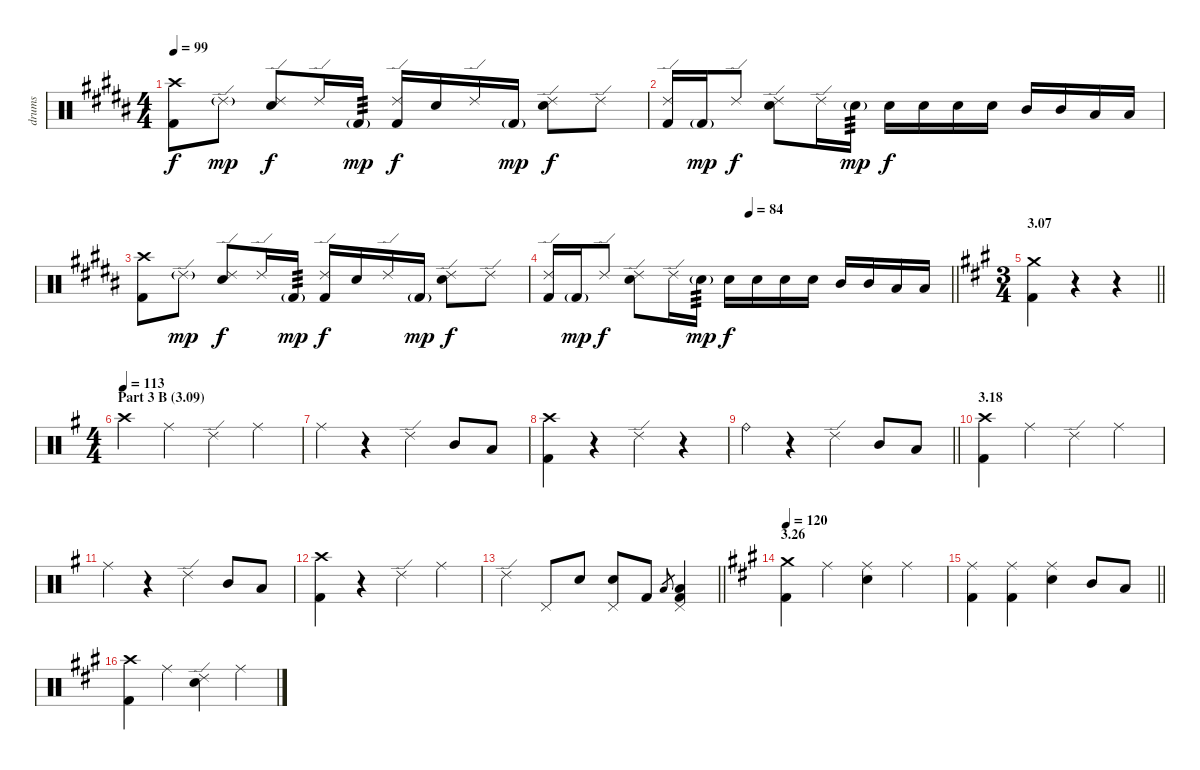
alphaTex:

\track ("drums" "drums") {instrument percussion}
\staff {score}
\articulation defaults
\ts (4 4)
\tempo 99
\clef neutral
\ks b
("Crash high (hit)" "Kick (hit) 2").8{dy f} "Ride (edge) 2"{g}.8{dy mp} ("Ride (edge) 2" "Electric Snare (hit)").8{dy f} "Ride (edge) 2".16 "Kick (hit) 2"{g}.16{tp 3 dy mp} ("Ride (edge) 2" "Kick (hit) 2").16{dy f} "Electric Snare (hit)".16 "Ride (edge) 2".16 "Kick (hit) 2"{g}.16{dy mp} ("Ride (edge) 2" "Electric Snare (hit)").8{dy f} "Ride (edge) 2".8 |
("Ride (edge) 2" "Kick (hit) 2").16 "Kick (hit) 2"{g}.16{dy mp} "Ride (edge) 2".8{dy f} ("Ride (edge) 2" "Electric Snare (hit)").8 "Ride (edge) 2".16 "Electric Snare (hit)"{g}.16{tp 3 dy mp} "Electric Snare (hit)".16{dy f} "Electric Snare (hit)".16 "Electric Snare (hit)".16 "Electric Snare (hit)".16 "Mid Tom (hit)".16 "Mid Tom (hit)".16 "Low Tom (hit)".16 "Low Tom (hit)".16 |
("Crash high (hit)" "Kick (hit) 2").8 "Ride (edge) 2"{g}.8{dy mp} ("Ride (edge) 2" "Electric Snare (hit)").8{dy f} "Ride (edge) 2".16 "Kick (hit) 2"{g}.16{tp 3 dy mp} ("Ride (edge) 2" "Kick (hit) 2").16{dy f} "Electric Snare (hit)".16 "Ride (edge) 2".16 "Kick (hit) 2"{g}.16{dy mp} ("Ride (edge) 2" "Electric Snare (hit)").8{dy f} "Ride (edge) 2".8 |
\tempo (84 0.5)
\barLineRight lightlight
("Ride (edge) 2" "Kick (hit) 2").16 "Kick (hit) 2"{g}.16{dy mp} "Ride (edge) 2".8{dy f} ("Ride (edge) 2" "Electric Snare (hit)").8 "Ride (edge) 2".16 "Electric Snare (hit)"{g}.16{tp 3 dy mp} "Electric Snare (hit)".16{dy f} "Electric Snare (hit)".16 "Electric Snare (hit)".16 "Electric Snare (hit)".16 "Mid Tom (hit)".16 "Mid Tom (hit)".16 "Low Tom (hit)".16 "Low Tom (hit)".16 |
\ts (3 4)
\section ("" "3.07")
\barLineRight lightlight
\ks a
("Crash medium (hit)" "Kick (hit) 2").4 r.4 r.4 |
\ts (4 4)
\section ("" "Part 3 B (3.09)")
\tempo 113
\ks g "Crash high (hit)".4 "Ride (middle)".4 "Ride (edge) 2".4 "Ride (middle)".4
|
"Ride (middle)".4 r.4 "Ride (edge) 2".4 "Mid Tom (hit)".8 "Low Tom (hit)".8 |
("Crash high (hit)" "Kick (hit) 2").4 r.4 "Ride (edge) 2".4 r.4 |
\barLineRight lightlight "Ride (bell)".4
r.4 "Ride (edge) 2".4 "Mid Tom (hit)".8 "Low Tom (hit)".8 |
\section ("" "3.18")
("Crash high (hit)" "Kick (hit) 2").4 "Ride (middle)".4 "Ride (edge) 2".4 "Ride (middle)".4 |
"Ride (middle)".4 r.4 "Ride (edge) 2".4 "Mid Tom (hit)".8 "Low Tom (hit)".8 |
("Crash high (hit)" "Kick (hit) 2").4 r.4 "Ride (edge) 2".4 "Ride (middle)".4 |
\barLineRight lightlight "Ride (edge) 2".4 "Pedal Hi-Hat (hit)".8 "Electric Snare (hit)".8
("Pedal Hi-Hat (hit)" "Electric Snare (hit)").8 "Kick (hit) 2".8 "Low Tom (hit)".8{gr} ("Pedal Hi-Hat (hit)" "Low Tom (hit)" "Kick (hit) 2").4 |
\section ("" "3.26")
\tempo 120
\ks a
("Crash medium (hit)" "Kick (hit) 2").4 "Ride (middle)".4 ("Ride (middle)" "Electric Snare (hit)").4 "Ride (middle)".4 |
\barLineRight lightlight
("Ride (middle)" "Kick (hit) 2").4 ("Ride (middle)" "Kick (hit) 2").4 ("Ride (middle)" "Electric Snare (hit)").4 "Mid Tom (hit)".8 "Low Tom (hit)".8 |
("Crash high (hit)" "Kick (hit) 2").4 "Ride (middle)".4 ("Ride (edge) 2" "Electric Snare (hit)").4 "Ride (middle)".4
